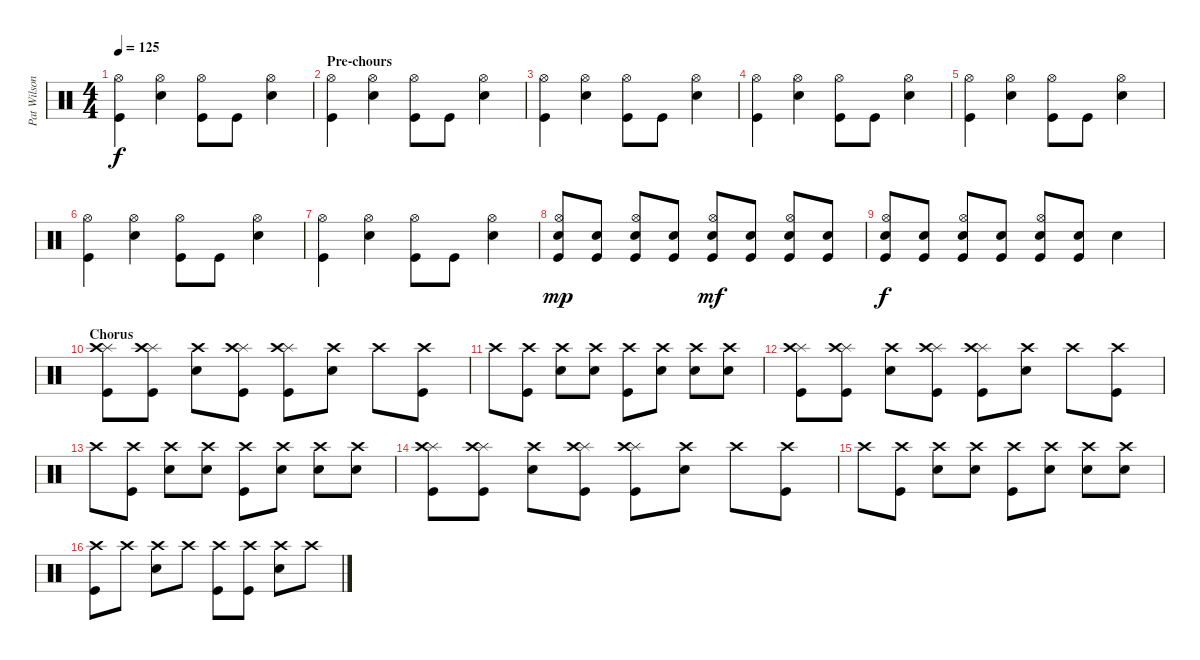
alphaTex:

\track ("Pat Wilson-Drums" "Pat Wilson") {instrument percussion}
\staff {score}
\articulation defaults
\ts (4 4)
\tempo 125
\clef neutral
\ks c
("Kick (hit)" "Hi-Hat (open)").4{dy f} ("Snare (hit) 2" "Hi-Hat (open)").4 ("Kick (hit)" "Hi-Hat (open)").8 "Kick (hit)".8 ("Snare (hit) 2" "Hi-Hat (open)").4 |
\section ("" "Pre-chours")
("Kick (hit)" "Hi-Hat (open)").4 ("Snare (hit) 2" "Hi-Hat (open)").4 ("Kick (hit)" "Hi-Hat (open)").8 "Kick (hit)".8 ("Snare (hit) 2" "Hi-Hat (open)").4 |
("Kick (hit)" "Hi-Hat (open)").4 ("Snare (hit) 2" "Hi-Hat (open)").4 ("Kick (hit)" "Hi-Hat (open)").8 "Kick (hit)".8 ("Snare (hit) 2" "Hi-Hat (open)").4 |
("Kick (hit)" "Hi-Hat (open)").4 ("Snare (hit) 2" "Hi-Hat (open)").4 ("Kick (hit)" "Hi-Hat (open)").8 "Kick (hit)".8 ("Snare (hit) 2" "Hi-Hat (open)").4 |
("Kick (hit)" "Hi-Hat (open)").4 ("Snare (hit) 2" "Hi-Hat (open)").4 ("Kick (hit)" "Hi-Hat (open)").8 "Kick (hit)".8 ("Snare (hit) 2" "Hi-Hat (open)").4 |
("Kick (hit)" "Hi-Hat (open)").4 ("Snare (hit) 2" "Hi-Hat (open)").4 ("Kick (hit)" "Hi-Hat (open)").8 "Kick (hit)".8 ("Snare (hit) 2" "Hi-Hat (open)").4 |
("Kick (hit)" "Hi-Hat (open)").4 ("Snare (hit) 2" "Hi-Hat (open)").4 ("Kick (hit)" "Hi-Hat (open)").8 "Kick (hit)".8 ("Snare (hit) 2" "Hi-Hat (open)").4 |
("Snare (hit) 2" "Kick (hit)" "Hi-Hat (open)").8{dy mp} ("Snare (hit) 2" "Kick (hit)").8 ("Snare (hit) 2" "Kick (hit)" "Hi-Hat (open)").8 ("Snare (hit) 2" "Kick (hit)").8 ("Snare (hit) 2" "Kick (hit)" "Hi-Hat (open)").8{dy mf} ("Snare (hit) 2" "Kick (hit)").8 ("Snare (hit) 2" "Kick (hit)" "Hi-Hat (open)").8 ("Snare (hit) 2" "Kick (hit)").8 |
("Snare (hit) 2" "Kick (hit)" "Hi-Hat (open)").8{dy f} ("Snare (hit) 2" "Kick (hit)").8 ("Snare (hit) 2" "Kick (hit)" "Hi-Hat (open)").8 ("Snare (hit) 2" "Kick (hit)").8 ("Snare (hit) 2" "Kick (hit)" "Hi-Hat (open)").8 ("Snare (hit) 2" "Kick (hit)").8 "Snare (hit) 2".4 |
\section ("" "Chorus")
("Splash (hit)" "Kick (hit)" "Crash high (hit)").8 ("Splash (hit)" "Kick (hit)" "Crash high (hit)").8 ("Snare (hit) 2" "Crash high (hit)").8 ("Splash (hit)" "Kick (hit)" "Crash high (hit)").8 ("Splash (hit)" "Kick (hit)" "Crash high (hit)").8 ("Snare (hit) 2" "Crash high (hit)").8 "Crash high (hit)".8 ("Kick (hit)" "Crash high (hit)").8 |
"Crash high (hit)".8 ("Kick (hit)" "Crash high (hit)").8 ("Snare (hit) 2" "Crash high (hit)").8 ("Snare (hit) 2" "Crash high (hit)").8 ("Kick (hit)" "Crash high (hit)").8 ("Snare (hit) 2" "Crash high (hit)").8 ("Snare (hit) 2" "Crash high (hit)").8 ("Snare (hit) 2" "Crash high (hit)").8 |
("Splash (hit)" "Kick (hit)" "Crash high (hit)").8 ("Splash (hit)" "Kick (hit)" "Crash high (hit)").8 ("Snare (hit) 2" "Crash high (hit)").8 ("Splash (hit)" "Kick (hit)" "Crash high (hit)").8 ("Splash (hit)" "Kick (hit)" "Crash high (hit)").8 ("Snare (hit) 2" "Crash high (hit)").8 "Crash high (hit)".8 ("Kick (hit)" "Crash high (hit)").8 |
"Crash high (hit)".8 ("Kick (hit)" "Crash high (hit)").8 ("Snare (hit) 2" "Crash high (hit)").8 ("Snare (hit) 2" "Crash high (hit)").8 ("Kick (hit)" "Crash high (hit)").8 ("Snare (hit) 2" "Crash high (hit)").8 ("Snare (hit) 2" "Crash high (hit)").8 ("Snare (hit) 2" "Crash high (hit)").8 |
("Splash (hit)" "Kick (hit)" "Crash high (hit)").8 ("Splash (hit)" "Kick (hit)" "Crash high (hit)").8 ("Snare (hit) 2" "Crash high (hit)").8 ("Splash (hit)" "Kick (hit)" "Crash high (hit)").8 ("Splash (hit)" "Kick (hit)" "Crash high (hit)").8 ("Snare (hit) 2" "Crash high (hit)").8 "Crash high (hit)".8 ("Kick (hit)" "Crash high (hit)").8 |
"Crash high (hit)".8 ("Kick (hit)" "Crash high (hit)").8 ("Snare (hit) 2" "Crash high (hit)").8 ("Snare (hit) 2" "Crash high (hit)").8 ("Kick (hit)" "Crash high (hit)").8 ("Snare (hit) 2" "Crash high (hit)").8 ("Snare (hit) 2" "Crash high (hit)").8 ("Snare (hit) 2" "Crash high (hit)").8 |
("Kick (hit)" "Crash high (hit)").8 "Crash high (hit)".8 ("Snare (hit) 2" "Crash high (hit)").8 "Crash high (hit)".8 ("Kick (hit)" "Crash high (hit)").8 ("Kick (hit)" "Crash high (hit)").8 ("Snare (hit) 2" "Crash high (hit)").8 "Crash high (hit)".8
